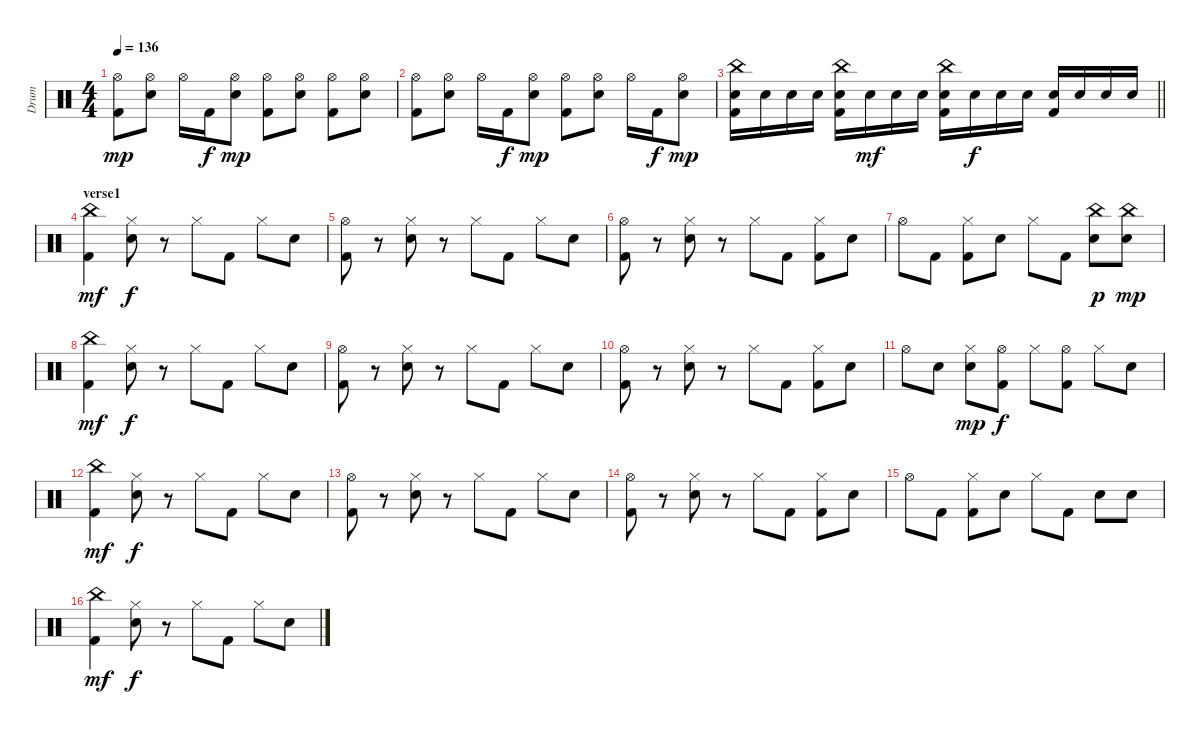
\track ("Drum" "Drum") {instrument percussion}
\staff {score}
\articulation defaults
\ts (4 4)
\tempo 136
\clef neutral
\ks c
("Kick (hit) 2" "Hi-Hat (open)").8{dy mp} ("Electric Snare (hit)" "Hi-Hat (open)").8 "Hi-Hat (open)".16 "Kick (hit) 2".16{dy f} ("Electric Snare (hit)" "Hi-Hat (open)").8{dy mp} ("Kick (hit) 2" "Hi-Hat (open)").8 ("Electric Snare (hit)" "Hi-Hat (open)").8 ("Kick (hit) 2" "Hi-Hat (open)").8 ("Electric Snare (hit)" "Hi-Hat (open)").8 |
("Kick (hit) 2" "Hi-Hat (open)").8 ("Electric Snare (hit)" "Hi-Hat (open)").8 "Hi-Hat (open)".16 "Kick (hit) 2".16{dy f} ("Electric Snare (hit)" "Hi-Hat (open)").8{dy mp} ("Kick (hit) 2" "Hi-Hat (open)").8 ("Electric Snare (hit)" "Hi-Hat (open)").8 "Hi-Hat (open)".16 "Kick (hit) 2".16{dy f} ("Electric Snare (hit)" "Hi-Hat (open)").8{dy mp} |
\barLineRight lightlight
("Electric Snare (hit)" "Kick (hit) 2" "China (hit)").16 "Electric Snare (hit)".16 "Electric Snare (hit)".16 "Electric Snare (hit)".16 ("Electric Snare (hit)" "Kick (hit) 2" "China (hit)").16 "Electric Snare (hit)".16{dy mf} "Electric Snare (hit)".16 "Electric Snare (hit)".16 ("Electric Snare (hit)" "Kick (hit) 2" "China (hit)").16 "Electric Snare (hit)".16{dy f} "Electric Snare (hit)".16 "Electric Snare (hit)".16 ("Electric Snare (hit)" "Kick (hit) 2").16 "Electric Snare (hit)".16 "Electric Snare (hit)".16 "Electric Snare (hit)".16 |
\section ("" "verse1")
("Kick (hit) 2" "China (hit)").4{dy mf} ("Hi-Hat (closed)" "Electric Snare (hit)").8{dy f} r.8 "Hi-Hat (closed)".8 "Kick (hit) 2".8 "Hi-Hat (closed)".8 "Electric Snare (hit)".8 |
("Kick (hit) 2" "Hi-Hat (open)").8 r.8 ("Hi-Hat (closed)" "Electric Snare (hit)").8 r.8 "Hi-Hat (closed)".8 "Kick (hit) 2".8 "Hi-Hat (closed)".8 "Electric Snare (hit)".8 |
("Kick (hit) 2" "Hi-Hat (open)").8 r.8 ("Hi-Hat (closed)" "Electric Snare (hit)").8 r.8 "Hi-Hat (closed)".8 "Kick (hit) 2".8 ("Kick (hit) 2" "Hi-Hat (closed)").8 "Electric Snare (hit)".8 |
"Hi-Hat (open)".8 "Kick (hit) 2".8 ("Kick (hit) 2" "Hi-Hat (closed)").8 "Electric Snare (hit)".8 "Hi-Hat (closed)".8 "Kick (hit) 2".8 ("Electric Snare (hit)" "China (hit)").8{dy p} ("Electric Snare (hit)" "China (hit)").8{dy mp} |
("Kick (hit) 2" "China (hit)").4{dy mf} ("Hi-Hat (closed)" "Electric Snare (hit)").8{dy f} r.8 "Hi-Hat (closed)".8 "Kick (hit) 2".8 "Hi-Hat (closed)".8 "Electric Snare (hit)".8 |
("Kick (hit) 2" "Hi-Hat (open)").8 r.8 ("Hi-Hat (closed)" "Electric Snare (hit)").8 r.8 "Hi-Hat (closed)".8 "Kick (hit) 2".8 "Hi-Hat (closed)".8 "Electric Snare (hit)".8 |
("Kick (hit) 2" "Hi-Hat (open)").8 r.8 ("Hi-Hat (closed)" "Electric Snare (hit)").8 r.8 "Hi-Hat (closed)".8 "Kick (hit) 2".8 ("Kick (hit) 2" "Hi-Hat (closed)").8 "Electric Snare (hit)".8 |
"Hi-Hat (open)".8 "Electric Snare (hit)".8 ("Electric Snare (hit)" "Hi-Hat (closed)").8{dy mp} ("Kick (hit) 2" "Hi-Hat (open)").8{dy f} "Hi-Hat (closed)".8 ("Kick (hit) 2" "Hi-Hat (open)").8 "Hi-Hat (closed)".8 "Electric Snare (hit)".8 |
("Kick (hit) 2" "China (hit)").4{dy mf} ("Hi-Hat (closed)" "Electric Snare (hit)").8{dy f} r.8 "Hi-Hat (closed)".8 "Kick (hit) 2".8 "Hi-Hat (closed)".8 "Electric Snare (hit)".8 |
("Kick (hit) 2" "Hi-Hat (open)").8 r.8 ("Hi-Hat (closed)" "Electric Snare (hit)").8 r.8 "Hi-Hat (closed)".8 "Kick (hit) 2".8 "Hi-Hat (closed)".8 "Electric Snare (hit)".8 |
("Kick (hit) 2" "Hi-Hat (open)").8 r.8 ("Hi-Hat (closed)" "Electric Snare (hit)").8 r.8 "Hi-Hat (closed)".8 "Kick (hit) 2".8 ("Kick (hit) 2" "Hi-Hat (closed)").8 "Electric Snare (hit)".8 |
"Hi-Hat (open)".8 "Kick (hit) 2".8 ("Kick (hit) 2" "Hi-Hat (closed)").8 "Electric Snare (hit)".8 "Hi-Hat (closed)".8 "Kick (hit) 2".8 "Electric Snare (hit)".8 "Electric Snare (hit)".8 |
("Kick (hit) 2" "China (hit)").4{dy mf} ("Hi-Hat (closed)" "Electric Snare (hit)").8{dy f} r.8 "Hi-Hat (closed)".8 "Kick (hit) 2".8 "Hi-Hat (closed)".8 "Electric Snare (hit)".8
